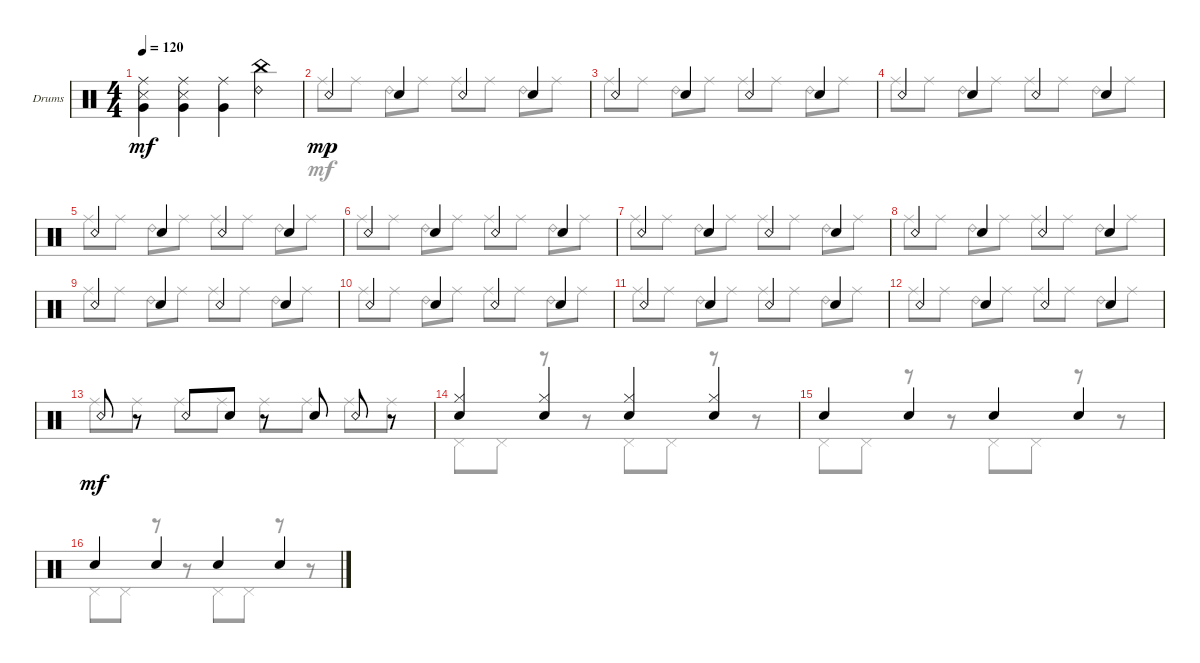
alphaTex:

\defaultSystemsLayout 4
\bracketExtendMode groupsimilarinstruments
\firstSystemTrackNameOrientation horizontal
\otherSystemsTrackNameOrientation horizontal
\track ("Drumkit" "Drums") {instrument percussion}
\staff {score}
\articulation defaults
\voice
\ts (4 4)
\tempo 120
\clef neutral
\ks c
("Ride (middle)" "Snare (side stick) 3" "Very Low Tom (hit)").4{dy mf} ("Ride (middle)" "Snare (side stick) 3" "Very Low Tom (hit)").4 ("Ride (middle)" "Very Low Tom (hit)").4 ("China (hit)" "Ride (bell) 2").4 |
"Snare (rim shot)".4{dy mp} "Snare (hit) 2".4 "Snare (rim shot)".4 "Snare (hit) 2".4 |
"Snare (rim shot)".4 "Snare (hit) 2".4 "Snare (rim shot)".4 "Snare (hit) 2".4 |
"Snare (rim shot)".4 "Snare (hit) 2".4 "Snare (rim shot)".4 "Snare (hit) 2".4 |
"Snare (rim shot)".4 "Snare (hit) 2".4 "Snare (rim shot)".4 "Snare (hit) 2".4 |
"Snare (rim shot)".4 "Snare (hit) 2".4 "Snare (rim shot)".4 "Snare (hit) 2".4 |
"Snare (rim shot)".4 "Snare (hit) 2".4 "Snare (rim shot)".4 "Snare (hit) 2".4 |
"Snare (rim shot)".4 "Snare (hit) 2".4 "Snare (rim shot)".4 "Snare (hit) 2".4 |
"Snare (rim shot)".4 "Snare (hit) 2".4 "Snare (rim shot)".4 "Snare (hit) 2".4 |
"Snare (rim shot)".4 "Snare (hit) 2".4 "Snare (rim shot)".4 "Snare (hit) 2".4 |
"Snare (rim shot)".4 "Snare (hit) 2".4 "Snare (rim shot)".4 "Snare (hit) 2".4 |
"Snare (rim shot)".4 "Snare (hit) 2".4 "Snare (rim shot)".4 "Snare (hit) 2".4 |
"Snare (rim shot)".8{dy mf} r.8 "Snare (rim shot)".8 "Snare (hit) 2".8 r.8 "Snare (hit) 2".8 "Snare (rim shot)".8 r.8 |
("Snare (hit) 2" "Hi-Hat (closed)").4 ("Snare (hit) 2" "Hi-Hat (closed)").4 ("Snare (hit) 2" "Hi-Hat (closed)").4 ("Snare (hit) 2" "Hi-Hat (closed)").4 |
"Snare (hit) 2".4 "Snare (hit) 2".4 "Snare (hit) 2".4 "Snare (hit) 2".4 |
"Snare (hit) 2".4 "Snare (hit) 2".4 "Snare (hit) 2".4 "Snare (hit) 2".4
\voice
\clef neutral
\ottava regular
\simile none
\ks c
|
"Ride (middle)".8 "Ride (middle)".8 "Ride (bell) 2".8 "Ride (middle)".8 "Ride (middle)".8 "Ride (middle)".8 "Ride (bell) 2".8 "Ride (middle)".8 |
"Ride (middle)".8 "Ride (middle)".8 "Ride (bell) 2".8 "Ride (middle)".8 "Ride (middle)".8 "Ride (middle)".8 "Ride (bell) 2".8 "Ride (middle)".8 |
"Ride (middle)".8 "Ride (middle)".8 "Ride (bell) 2".8 "Ride (middle)".8 "Ride (middle)".8 "Ride (middle)".8 "Ride (bell) 2".8 "Ride (middle)".8 |
"Ride (middle)".8 "Ride (middle)".8 "Ride (bell) 2".8 "Ride (middle)".8 "Ride (middle)".8 "Ride (middle)".8 "Ride (bell) 2".8 "Ride (middle)".8 |
"Ride (middle)".8 "Ride (middle)".8 "Ride (bell) 2".8 "Ride (middle)".8 "Ride (middle)".8 "Ride (middle)".8 "Ride (bell) 2".8 "Ride (middle)".8 |
"Ride (middle)".8 "Ride (middle)".8 "Ride (bell) 2".8 "Ride (middle)".8 "Ride (middle)".8 "Ride (middle)".8 "Ride (bell) 2".8 "Ride (middle)".8 |
"Ride (middle)".8 "Ride (middle)".8 "Ride (bell) 2".8 "Ride (middle)".8 "Ride (middle)".8 "Ride (middle)".8 "Ride (bell) 2".8 "Ride (middle)".8 |
"Ride (middle)".8 "Ride (middle)".8 "Ride (bell) 2".8 "Ride (middle)".8 "Ride (middle)".8 "Ride (middle)".8 "Ride (bell) 2".8 "Ride (middle)".8 |
"Ride (middle)".8 "Ride (middle)".8 "Ride (bell) 2".8 "Ride (middle)".8 "Ride (middle)".8 "Ride (middle)".8 "Ride (bell) 2".8 "Ride (middle)".8 |
"Ride (middle)".8 "Ride (middle)".8 "Ride (bell) 2".8 "Ride (middle)".8 "Ride (middle)".8 "Ride (middle)".8 "Ride (bell) 2".8 "Ride (middle)".8 |
"Ride (middle)".8 "Ride (middle)".8 "Ride (bell) 2".8 "Ride (middle)".8 "Ride (middle)".8 "Ride (middle)".8 "Ride (bell) 2".8 "Ride (middle)".8 |
"Ride (middle)".8{dy mf} "Ride (middle)".8 "Ride (middle)".8 "Ride (middle)".8 "Ride (middle)".8 "Ride (middle)".8 "Ride (middle)".8 "Ride (middle)".8 |
"Pedal Hi-Hat (hit)".8 "Pedal Hi-Hat (hit)".8 r.8 r.8 "Pedal Hi-Hat (hit)".8 "Pedal Hi-Hat (hit)".8 r.8 r.8 |
"Pedal Hi-Hat (hit)".8 "Pedal Hi-Hat (hit)".8 r.8 r.8 "Pedal Hi-Hat (hit)".8 "Pedal Hi-Hat (hit)".8 r.8 r.8 |
"Pedal Hi-Hat (hit)".8 "Pedal Hi-Hat (hit)".8 r.8 r.8 "Pedal Hi-Hat (hit)".8 "Pedal Hi-Hat (hit)".8 r.8 r.8
